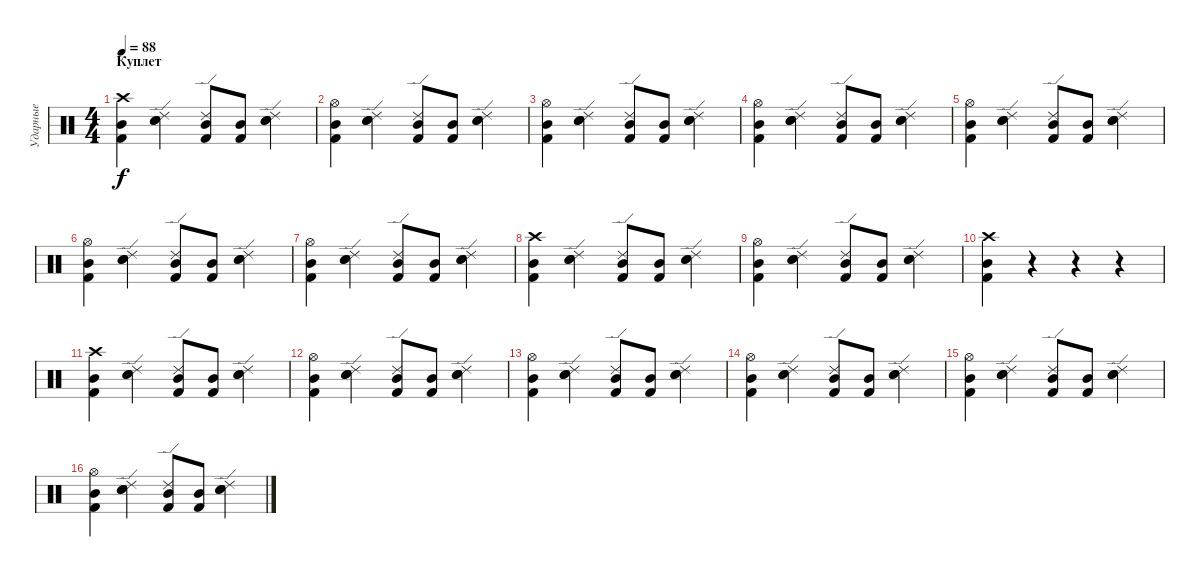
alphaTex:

\track ("Ударные" "Ударные") {instrument percussion}
\staff {score}
\articulation defaults
\ts (4 4)
\section ("" "Куплет")
\tempo 88
\clef neutral
\ks c
("Kick (hit) 2" "Mid Tom (hit)" "Crash high (hit)").4{dy f} ("Ride (edge) 2" "Electric Snare (hit)" "Electric Snare (hit)").4 ("Ride (edge) 2" "Mid Tom (hit)" "Kick (hit) 2").8 ("Mid Tom (hit)" "Kick (hit) 2").8 ("Ride (edge) 2" "Electric Snare (hit)" "Electric Snare (hit)").4 |
("Kick (hit) 2" "Mid Tom (hit)" "Hi-Hat (open)").4 ("Ride (edge) 2" "Electric Snare (hit)" "Electric Snare (hit)").4 ("Ride (edge) 2" "Mid Tom (hit)" "Kick (hit) 2").8 ("Mid Tom (hit)" "Kick (hit) 2").8 ("Ride (edge) 2" "Electric Snare (hit)" "Electric Snare (hit)").4 |
("Kick (hit) 2" "Mid Tom (hit)" "Hi-Hat (open)").4 ("Ride (edge) 2" "Electric Snare (hit)" "Electric Snare (hit)").4 ("Ride (edge) 2" "Mid Tom (hit)" "Kick (hit) 2").8 ("Mid Tom (hit)" "Kick (hit) 2").8 ("Ride (edge) 2" "Electric Snare (hit)" "Electric Snare (hit)").4 |
("Kick (hit) 2" "Mid Tom (hit)" "Hi-Hat (open)").4 ("Ride (edge) 2" "Electric Snare (hit)" "Electric Snare (hit)").4 ("Ride (edge) 2" "Mid Tom (hit)" "Kick (hit) 2").8 ("Mid Tom (hit)" "Kick (hit) 2").8 ("Ride (edge) 2" "Electric Snare (hit)" "Electric Snare (hit)").4 |
("Kick (hit) 2" "Mid Tom (hit)" "Hi-Hat (open)").4 ("Ride (edge) 2" "Electric Snare (hit)" "Electric Snare (hit)").4 ("Ride (edge) 2" "Mid Tom (hit)" "Kick (hit) 2").8 ("Mid Tom (hit)" "Kick (hit) 2").8 ("Ride (edge) 2" "Electric Snare (hit)" "Electric Snare (hit)").4 |
("Kick (hit) 2" "Mid Tom (hit)" "Hi-Hat (open)").4 ("Ride (edge) 2" "Electric Snare (hit)" "Electric Snare (hit)").4 ("Ride (edge) 2" "Mid Tom (hit)" "Kick (hit) 2").8 ("Mid Tom (hit)" "Kick (hit) 2").8 ("Ride (edge) 2" "Electric Snare (hit)" "Electric Snare (hit)").4 |
("Kick (hit) 2" "Mid Tom (hit)" "Hi-Hat (open)").4 ("Ride (edge) 2" "Electric Snare (hit)" "Electric Snare (hit)").4 ("Ride (edge) 2" "Mid Tom (hit)" "Kick (hit) 2").8 ("Mid Tom (hit)" "Kick (hit) 2").8 ("Ride (edge) 2" "Electric Snare (hit)" "Electric Snare (hit)").4 |
("Kick (hit) 2" "Mid Tom (hit)" "Crash high (hit)").4 ("Ride (edge) 2" "Electric Snare (hit)" "Electric Snare (hit)").4 ("Ride (edge) 2" "Mid Tom (hit)" "Kick (hit) 2").8 ("Mid Tom (hit)" "Kick (hit) 2").8 ("Ride (edge) 2" "Electric Snare (hit)" "Electric Snare (hit)").4 |
("Kick (hit) 2" "Mid Tom (hit)" "Hi-Hat (open)").4 ("Ride (edge) 2" "Electric Snare (hit)" "Electric Snare (hit)").4 ("Ride (edge) 2" "Mid Tom (hit)" "Kick (hit) 2").8 ("Mid Tom (hit)" "Kick (hit) 2").8 ("Ride (edge) 2" "Electric Snare (hit)" "Electric Snare (hit)").4 |
("Kick (hit) 2" "Mid Tom (hit)" "Crash high (hit)").4 r.4 r.4 r.4 |
("Kick (hit) 2" "Mid Tom (hit)" "Crash high (hit)").4 ("Ride (edge) 2" "Electric Snare (hit)" "Electric Snare (hit)").4 ("Ride (edge) 2" "Mid Tom (hit)" "Kick (hit) 2").8 ("Mid Tom (hit)" "Kick (hit) 2").8 ("Ride (edge) 2" "Electric Snare (hit)" "Electric Snare (hit)").4 |
("Kick (hit) 2" "Mid Tom (hit)" "Hi-Hat (open)").4 ("Ride (edge) 2" "Electric Snare (hit)" "Electric Snare (hit)").4 ("Ride (edge) 2" "Mid Tom (hit)" "Kick (hit) 2").8 ("Mid Tom (hit)" "Kick (hit) 2").8 ("Ride (edge) 2" "Electric Snare (hit)" "Electric Snare (hit)").4 |
("Kick (hit) 2" "Mid Tom (hit)" "Hi-Hat (open)").4 ("Ride (edge) 2" "Electric Snare (hit)" "Electric Snare (hit)").4 ("Ride (edge) 2" "Mid Tom (hit)" "Kick (hit) 2").8 ("Mid Tom (hit)" "Kick (hit) 2").8 ("Ride (edge) 2" "Electric Snare (hit)" "Electric Snare (hit)").4 |
("Kick (hit) 2" "Mid Tom (hit)" "Hi-Hat (open)").4 ("Ride (edge) 2" "Electric Snare (hit)" "Electric Snare (hit)").4 ("Ride (edge) 2" "Mid Tom (hit)" "Kick (hit) 2").8 ("Mid Tom (hit)" "Kick (hit) 2").8 ("Ride (edge) 2" "Electric Snare (hit)" "Electric Snare (hit)").4 |
("Kick (hit) 2" "Mid Tom (hit)" "Hi-Hat (open)").4 ("Ride (edge) 2" "Electric Snare (hit)" "Electric Snare (hit)").4 ("Ride (edge) 2" "Mid Tom (hit)" "Kick (hit) 2").8 ("Mid Tom (hit)" "Kick (hit) 2").8 ("Ride (edge) 2" "Electric Snare (hit)" "Electric Snare (hit)").4 |
("Kick (hit) 2" "Mid Tom (hit)" "Hi-Hat (open)").4 ("Ride (edge) 2" "Electric Snare (hit)" "Electric Snare (hit)").4 ("Ride (edge) 2" "Mid Tom (hit)" "Kick (hit) 2").8 ("Mid Tom (hit)" "Kick (hit) 2").8 ("Ride (edge) 2" "Electric Snare (hit)" "Electric Snare (hit)").4
